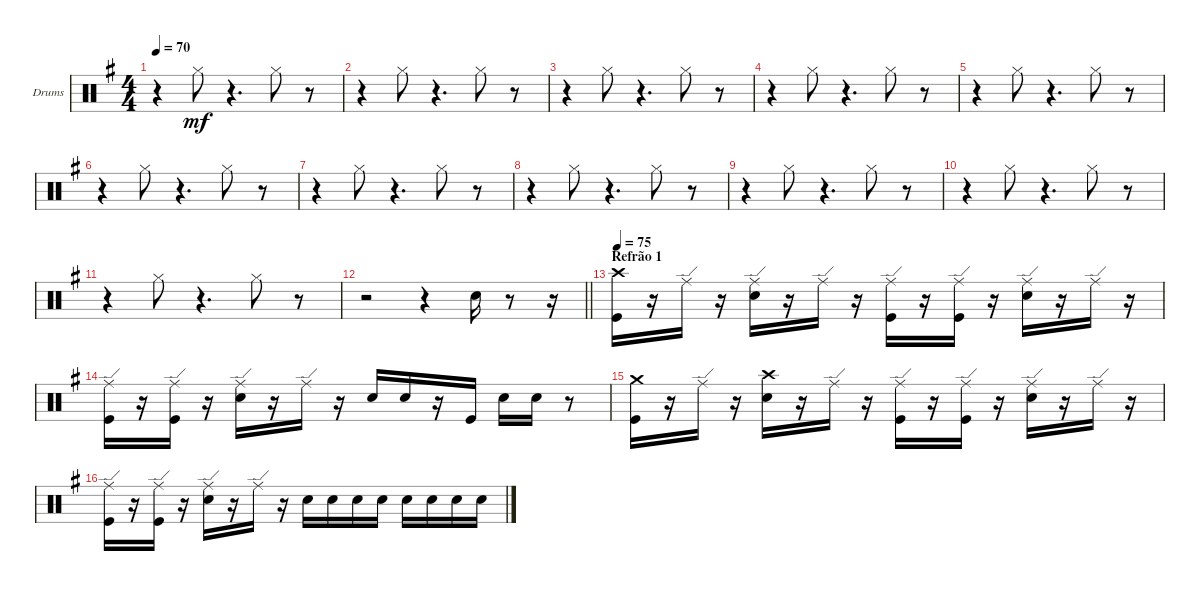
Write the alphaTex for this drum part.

\bracketExtendMode groupsimilarinstruments
\firstSystemTrackNameOrientation horizontal
\otherSystemsTrackNameOrientation horizontal
\track ("Drumkit" "Drums") {instrument percussion}
\staff {score}
\articulation defaults
\ts (4 4)
\tempo 70
\clef neutral
\ks eminor
r.4{dy mf} "Hi-Hat (closed)".8 r.4{d} "Hi-Hat (closed)".8 r.8 |
r.4 "Hi-Hat (closed)".8 r.4{d} "Hi-Hat (closed)".8 r.8 |
r.4 "Hi-Hat (closed)".8 r.4{d} "Hi-Hat (closed)".8 r.8 |
r.4 "Hi-Hat (closed)".8 r.4{d} "Hi-Hat (closed)".8 r.8 |
r.4 "Hi-Hat (closed)".8 r.4{d} "Hi-Hat (closed)".8 r.8 |
r.4 "Hi-Hat (closed)".8 r.4{d} "Hi-Hat (closed)".8 r.8 |
r.4 "Hi-Hat (closed)".8 r.4{d} "Hi-Hat (closed)".8 r.8 |
r.4 "Hi-Hat (closed)".8 r.4{d} "Hi-Hat (closed)".8 r.8 |
r.4 "Hi-Hat (closed)".8 r.4{d} "Hi-Hat (closed)".8 r.8 |
r.4 "Hi-Hat (closed)".8 r.4{d} "Hi-Hat (closed)".8 r.8 |
r.4 "Hi-Hat (closed)".8 r.4{d} "Hi-Hat (closed)".8 r.8 |
\barLineRight lightlight
r.2 r.4 "Snare (hit) 2".16 r.8 r.16 |
\section ("" "Refrão 1")
\tempo 75
("Kick (hit)" "Crash high (hit)").16 r.16 "Ride (edge)".16 r.16 ("Snare (hit) 2" "Ride (edge)").16 r.16 "Ride (edge)".16 r.16 ("Kick (hit)" "Ride (edge)").16 r.16 ("Kick (hit)" "Ride (edge)").16 r.16 ("Snare (hit) 2" "Ride (edge)").16 r.16 "Ride (edge)".16 r.16 |
("Kick (hit)" "Ride (edge)").16 r.16 ("Kick (hit)" "Ride (edge)").16 r.16 ("Snare (hit) 2" "Ride (edge)").16 r.16 "Ride (edge)".16 r.16 "Snare (hit) 2".16 "Snare (hit) 2".16 r.16 "Kick (hit)".16 "Snare (hit) 2".16 "Snare (hit) 2".16 r.8 |
("Kick (hit)" "Crash medium (hit)").16 r.16 "Ride (edge)".16 r.16 ("Snare (hit) 2" "Crash high (hit)").16 r.16 "Ride (edge)".16 r.16 ("Kick (hit)" "Ride (edge)").16 r.16 ("Kick (hit)" "Ride (edge)").16 r.16 ("Snare (hit) 2" "Ride (edge)").16 r.16 "Ride (edge)".16 r.16 |
("Kick (hit)" "Ride (edge)").16 r.16 ("Kick (hit)" "Ride (edge)").16 r.16 ("Snare (hit) 2" "Ride (edge)").16 r.16 "Ride (edge)".16 r.16 "Snare (hit) 2".16 "Snare (hit) 2".16 "Snare (hit) 2".16 "Snare (hit) 2".16 "Snare (hit) 2".16 "Snare (hit) 2".16 "Snare (hit) 2".16 "Snare (hit) 2".16
